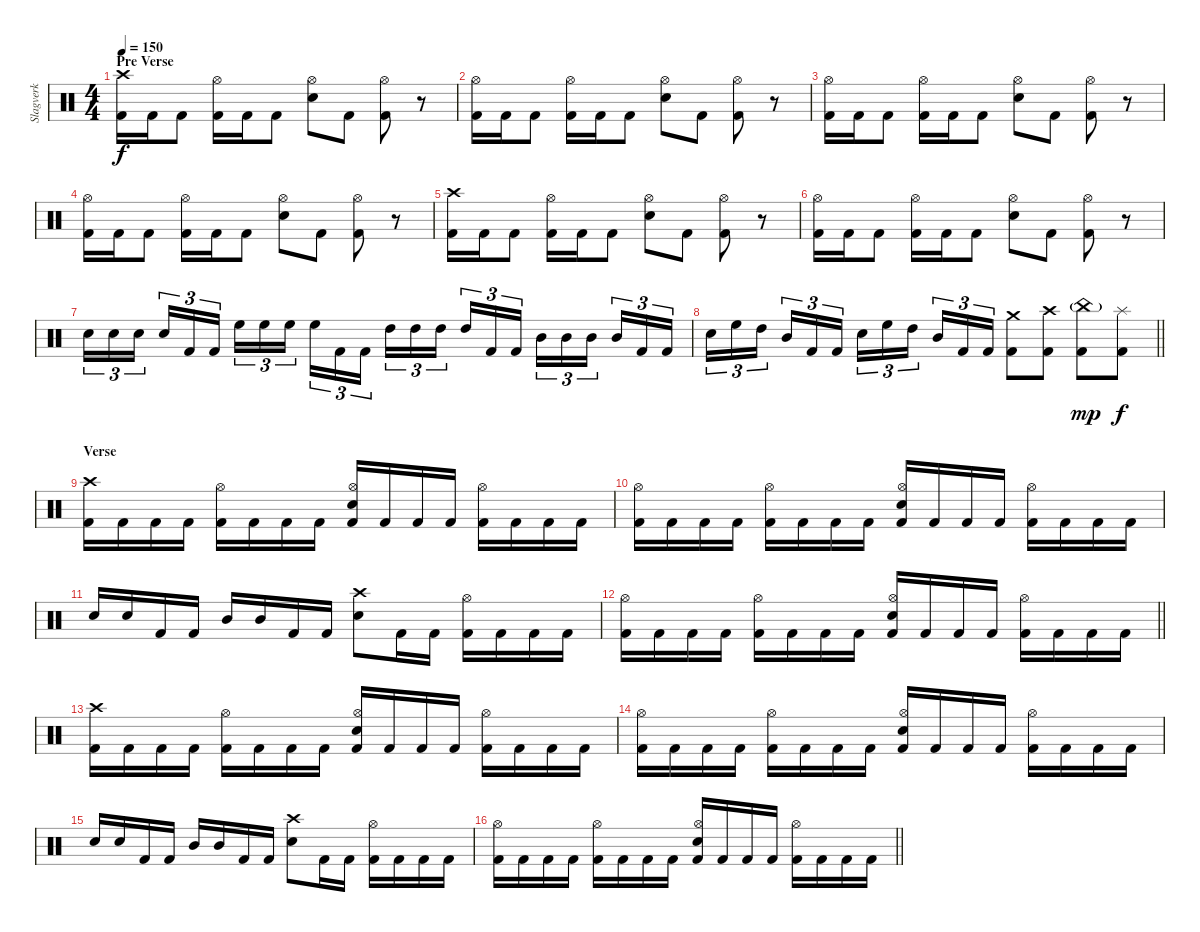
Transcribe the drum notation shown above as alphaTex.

\track ("Slagverk" "Slagverk") {instrument percussion}
\staff {score}
\articulation defaults
\ts (4 4)
\section ("" "Pre Verse")
\tempo 150
\clef neutral
\ks c
("Crash high (hit)" "Kick (hit) 2").16{dy f} "Kick (hit) 2".16 "Kick (hit) 2".8 ("Hi-Hat (open)" "Kick (hit) 2").16 "Kick (hit) 2".16 "Kick (hit) 2".8 ("Hi-Hat (open)" "Electric Snare (hit)").8 "Kick (hit) 2".8 ("Hi-Hat (open)" "Kick (hit) 2").8 r.8 |
("Hi-Hat (open)" "Kick (hit) 2").16 "Kick (hit) 2".16 "Kick (hit) 2".8 ("Hi-Hat (open)" "Kick (hit) 2").16 "Kick (hit) 2".16 "Kick (hit) 2".8 ("Hi-Hat (open)" "Electric Snare (hit)").8 "Kick (hit) 2".8 ("Hi-Hat (open)" "Kick (hit) 2").8 r.8 |
("Hi-Hat (open)" "Kick (hit) 2").16 "Kick (hit) 2".16 "Kick (hit) 2".8 ("Hi-Hat (open)" "Kick (hit) 2").16 "Kick (hit) 2".16 "Kick (hit) 2".8 ("Hi-Hat (open)" "Electric Snare (hit)").8 "Kick (hit) 2".8 ("Hi-Hat (open)" "Kick (hit) 2").8 r.8 |
("Hi-Hat (open)" "Kick (hit) 2").16 "Kick (hit) 2".16 "Kick (hit) 2".8 ("Hi-Hat (open)" "Kick (hit) 2").16 "Kick (hit) 2".16 "Kick (hit) 2".8 ("Hi-Hat (open)" "Electric Snare (hit)").8 "Kick (hit) 2".8 ("Hi-Hat (open)" "Kick (hit) 2").8 r.8 |
("Crash high (hit)" "Kick (hit) 2").16 "Kick (hit) 2".16 "Kick (hit) 2".8 ("Hi-Hat (open)" "Kick (hit) 2").16 "Kick (hit) 2".16 "Kick (hit) 2".8 ("Hi-Hat (open)" "Electric Snare (hit)").8 "Kick (hit) 2".8 ("Hi-Hat (open)" "Kick (hit) 2").8 r.8 |
("Hi-Hat (open)" "Kick (hit) 2").16 "Kick (hit) 2".16 "Kick (hit) 2".8 ("Hi-Hat (open)" "Kick (hit) 2").16 "Kick (hit) 2".16 "Kick (hit) 2".8 ("Hi-Hat (open)" "Electric Snare (hit)").8 "Kick (hit) 2".8 ("Hi-Hat (open)" "Kick (hit) 2").8 r.8 |
"Electric Snare (hit)".16{tu (3 2)} "Electric Snare (hit)".16{tu (3 2)} "Electric Snare (hit)".16{tu (3 2) beam splitsecondary} "Electric Snare (hit)".16{tu (3 2)} "Kick (hit) 2".16{tu (3 2)} "Kick (hit) 2".16{tu (3 2)} "High Floor Tom (hit)".16{tu (3 2)} "High Floor Tom (hit)".16{tu (3 2)} "High Floor Tom (hit)".16{tu (3 2) beam splitsecondary} "High Floor Tom (hit)".16{tu (3 2)} "Kick (hit) 2".16{tu (3 2)} "Kick (hit) 2".16{tu (3 2)} "High Tom (hit)".16{tu (3 2)} "High Tom (hit)".16{tu (3 2)} "High Tom (hit)".16{tu (3 2) beam splitsecondary} "High Tom (hit)".16{tu (3 2)} "Kick (hit) 2".16{tu (3 2)} "Kick (hit) 2".16{tu (3 2)} "Mid Tom (hit)".16{tu (3 2)} "Mid Tom (hit)".16{tu (3 2)} "Mid Tom (hit)".16{tu (3 2) beam splitsecondary} "Mid Tom (hit)".16{tu (3 2)} "Kick (hit) 2".16{tu (3 2)} "Kick (hit) 2".16{tu (3 2)} |
\barLineRight lightlight "Electric Snare (hit)".16{tu (3 2)} "High Floor Tom (hit)".16{tu (3 2)} "High Tom (hit)".16{tu (3 2) beam splitsecondary} "Mid Tom (hit)".16{tu (3 2)} "Kick (hit) 2".16{tu (3 2)} "Kick (hit) 2".16{tu (3 2)} "Electric Snare (hit)".16{tu (3 2)} "High Floor Tom (hit)".16{tu (3 2)} "High Tom (hit)".16{tu (3 2) beam splitsecondary} "Mid Tom (hit)".16{tu (3 2)} "Kick (hit) 2".16{tu (3 2)} "Kick (hit) 2".16{tu (3 2)}
("Crash medium (hit)" "Kick (hit) 2").8 ("Crash high (hit)" "Kick (hit) 2").8 ("China (hit)"{g} "Kick (hit) 2").8{dy mp} ("Splash (hit)" "Kick (hit) 2").8{dy f} |
\section ("" "Verse")
("Crash high (hit)" "Kick (hit) 2").16 "Kick (hit) 2".16 "Kick (hit) 2".16 "Kick (hit) 2".16 ("Hi-Hat (open)" "Kick (hit) 2").16 "Kick (hit) 2".16 "Kick (hit) 2".16 "Kick (hit) 2".16 ("Hi-Hat (open)" "Electric Snare (hit)" "Kick (hit) 2").16 "Kick (hit) 2".16 "Kick (hit) 2".16 "Kick (hit) 2".16 ("Hi-Hat (open)" "Kick (hit) 2").16 "Kick (hit) 2".16 "Kick (hit) 2".16 "Kick (hit) 2".16 |
("Hi-Hat (open)" "Kick (hit) 2").16 "Kick (hit) 2".16 "Kick (hit) 2".16 "Kick (hit) 2".16 ("Hi-Hat (open)" "Kick (hit) 2").16 "Kick (hit) 2".16 "Kick (hit) 2".16 "Kick (hit) 2".16 ("Hi-Hat (open)" "Electric Snare (hit)" "Kick (hit) 2").16 "Kick (hit) 2".16 "Kick (hit) 2".16 "Kick (hit) 2".16 ("Hi-Hat (open)" "Kick (hit) 2").16 "Kick (hit) 2".16 "Kick (hit) 2".16 "Kick (hit) 2".16 |
"Electric Snare (hit)".16 "Electric Snare (hit)".16 "Kick (hit) 2".16 "Kick (hit) 2".16 "Mid Tom (hit)".16 "Mid Tom (hit)".16 "Kick (hit) 2".16 "Kick (hit) 2".16 ("Crash high (hit)" "Electric Snare (hit)").8 "Kick (hit) 2".16 "Kick (hit) 2".16 ("Hi-Hat (open)" "Kick (hit) 2").16 "Kick (hit) 2".16 "Kick (hit) 2".16 "Kick (hit) 2".16 |
\barLineRight lightlight
("Hi-Hat (open)" "Kick (hit) 2").16 "Kick (hit) 2".16 "Kick (hit) 2".16 "Kick (hit) 2".16 ("Hi-Hat (open)" "Kick (hit) 2").16 "Kick (hit) 2".16 "Kick (hit) 2".16 "Kick (hit) 2".16 ("Hi-Hat (open)" "Electric Snare (hit)" "Kick (hit) 2").16 "Kick (hit) 2".16 "Kick (hit) 2".16 "Kick (hit) 2".16 ("Hi-Hat (open)" "Kick (hit) 2").16 "Kick (hit) 2".16 "Kick (hit) 2".16 "Kick (hit) 2".16 |
("Crash high (hit)" "Kick (hit) 2").16 "Kick (hit) 2".16 "Kick (hit) 2".16 "Kick (hit) 2".16 ("Hi-Hat (open)" "Kick (hit) 2").16 "Kick (hit) 2".16 "Kick (hit) 2".16 "Kick (hit) 2".16 ("Hi-Hat (open)" "Electric Snare (hit)" "Kick (hit) 2").16 "Kick (hit) 2".16 "Kick (hit) 2".16 "Kick (hit) 2".16 ("Hi-Hat (open)" "Kick (hit) 2").16 "Kick (hit) 2".16 "Kick (hit) 2".16 "Kick (hit) 2".16 |
("Hi-Hat (open)" "Kick (hit) 2").16 "Kick (hit) 2".16 "Kick (hit) 2".16 "Kick (hit) 2".16 ("Hi-Hat (open)" "Kick (hit) 2").16 "Kick (hit) 2".16 "Kick (hit) 2".16 "Kick (hit) 2".16 ("Hi-Hat (open)" "Electric Snare (hit)" "Kick (hit) 2").16 "Kick (hit) 2".16 "Kick (hit) 2".16 "Kick (hit) 2".16 ("Hi-Hat (open)" "Kick (hit) 2").16 "Kick (hit) 2".16 "Kick (hit) 2".16 "Kick (hit) 2".16 |
"Electric Snare (hit)".16 "Electric Snare (hit)".16 "Kick (hit) 2".16 "Kick (hit) 2".16 "Mid Tom (hit)".16 "Mid Tom (hit)".16 "Kick (hit) 2".16 "Kick (hit) 2".16 ("Crash high (hit)" "Electric Snare (hit)").8 "Kick (hit) 2".16 "Kick (hit) 2".16 ("Hi-Hat (open)" "Kick (hit) 2").16 "Kick (hit) 2".16 "Kick (hit) 2".16 "Kick (hit) 2".16 |
\barLineRight lightlight
("Hi-Hat (open)" "Kick (hit) 2").16 "Kick (hit) 2".16 "Kick (hit) 2".16 "Kick (hit) 2".16 ("Hi-Hat (open)" "Kick (hit) 2").16 "Kick (hit) 2".16 "Kick (hit) 2".16 "Kick (hit) 2".16 ("Hi-Hat (open)" "Electric Snare (hit)" "Kick (hit) 2").16 "Kick (hit) 2".16 "Kick (hit) 2".16 "Kick (hit) 2".16 ("Hi-Hat (open)" "Kick (hit) 2").16 "Kick (hit) 2".16 "Kick (hit) 2".16 "Kick (hit) 2".16
